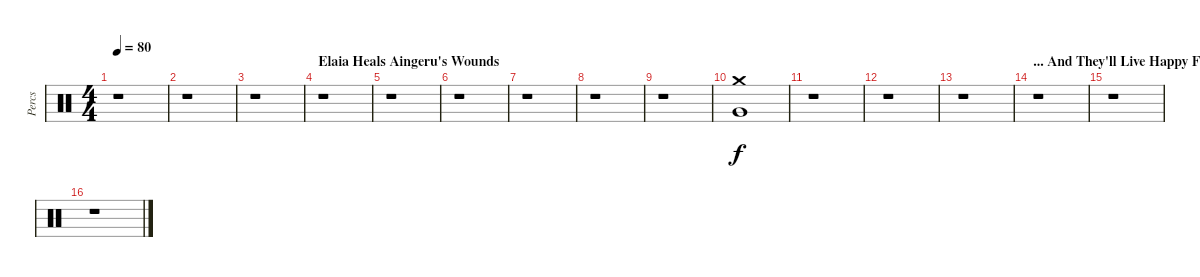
\track ("Percs" "Percs") {instrument percussion}
\staff {score}
\articulation defaults
\ts (4 4)
\tempo 80
\clef neutral
\ks c
r.1{dy f} |
r.1 |
r.1 |
\section ("" "Elaia Heals Aingeru's Wounds")
r.1 |
r.1 |
r.1 |
r.1 |
r.1 |
r.1 |
("Crash medium (hit)" "Very Low Tom (hit)").1 |
r.1 |
r.1 |
r.1 |
\section ("" "... And They'll Live Happy Forever")
r.1 |
r.1 |
r.1
